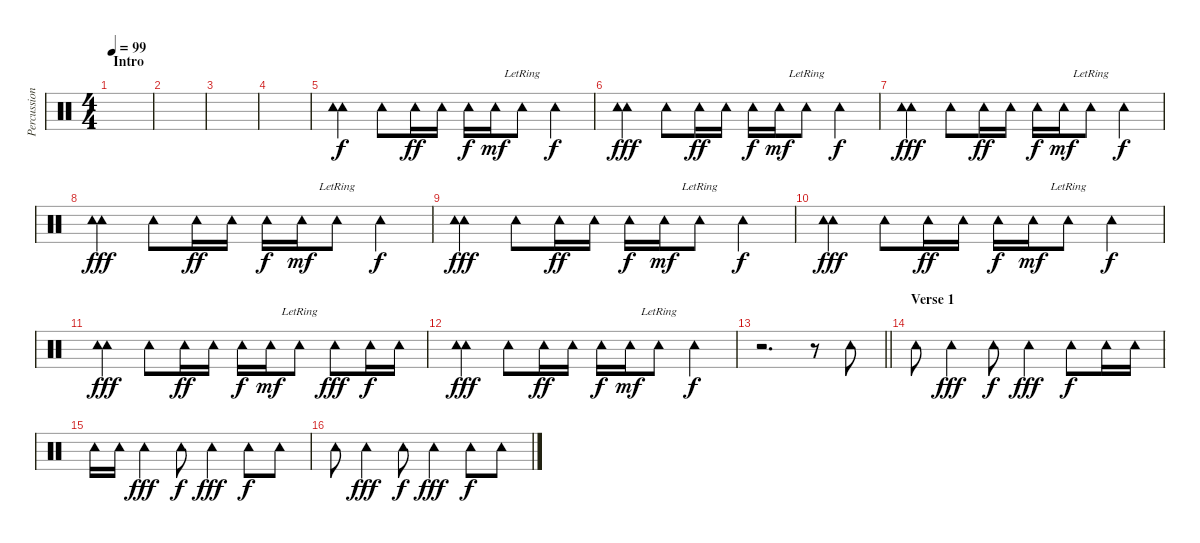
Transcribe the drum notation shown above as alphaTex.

\track ("Percussion" "Percussion") {instrument percussion}
\staff {score}
\articulation defaults
\ts (4 4)
\section ("" "Intro")
\tempo 99
\clef neutral
\ks c
|
|
|
|
("Tambourine (hit)" "Tambourine (hit)").4{bd 60} "Tambourine (hit)".8 "Tambourine (hit)".16{dy ff} "Tambourine (hit)".16 "Tambourine (hit)".16{dy f} "Tambourine (hit)".16{dy mf} "Tambourine (hit)"{lr}.8 "Tambourine (hit)".4{dy f} |
("Tambourine (hit)" "Tambourine (hit)").4{bd 60 dy fff} "Tambourine (hit)".8 "Tambourine (hit)".16{dy ff} "Tambourine (hit)".16 "Tambourine (hit)".16{dy f} "Tambourine (hit)".16{dy mf} "Tambourine (hit)"{lr}.8 "Tambourine (hit)".4{dy f} |
("Tambourine (hit)" "Tambourine (hit)").4{bd 60 dy fff} "Tambourine (hit)".8 "Tambourine (hit)".16{dy ff} "Tambourine (hit)".16 "Tambourine (hit)".16{dy f} "Tambourine (hit)".16{dy mf} "Tambourine (hit)"{lr}.8 "Tambourine (hit)".4{dy f} |
("Tambourine (hit)" "Tambourine (hit)").4{bd 60 dy fff} "Tambourine (hit)".8 "Tambourine (hit)".16{dy ff} "Tambourine (hit)".16 "Tambourine (hit)".16{dy f} "Tambourine (hit)".16{dy mf} "Tambourine (hit)"{lr}.8 "Tambourine (hit)".4{dy f} |
("Tambourine (hit)" "Tambourine (hit)").4{bd 60 dy fff} "Tambourine (hit)".8 "Tambourine (hit)".16{dy ff} "Tambourine (hit)".16 "Tambourine (hit)".16{dy f} "Tambourine (hit)".16{dy mf} "Tambourine (hit)"{lr}.8 "Tambourine (hit)".4{dy f} |
("Tambourine (hit)" "Tambourine (hit)").4{bd 60 dy fff} "Tambourine (hit)".8 "Tambourine (hit)".16{dy ff} "Tambourine (hit)".16 "Tambourine (hit)".16{dy f} "Tambourine (hit)".16{dy mf} "Tambourine (hit)"{lr}.8 "Tambourine (hit)".4{dy f} |
("Tambourine (hit)" "Tambourine (hit)").4{bd 60 dy fff} "Tambourine (hit)".8 "Tambourine (hit)".16{dy ff} "Tambourine (hit)".16 "Tambourine (hit)".16{dy f} "Tambourine (hit)".16{dy mf} "Tambourine (hit)"{lr}.8 "Tambourine (hit)".8{dy fff} "Tambourine (hit)".16{dy f} "Tambourine (hit)".16 |
("Tambourine (hit)" "Tambourine (hit)").4{bd 60 dy fff} "Tambourine (hit)".8 "Tambourine (hit)".16{dy ff} "Tambourine (hit)".16 "Tambourine (hit)".16{dy f} "Tambourine (hit)".16{dy mf} "Tambourine (hit)"{lr}.8 "Tambourine (hit)".4{dy f} |
\barLineRight lightlight
r.2{d volume 4} r.8 "Tambourine (hit)".8 |
\section ("" "Verse 1")
"Tambourine (hit)".8 "Tambourine (hit)".4{dy fff} "Tambourine (hit)".8{dy f} "Tambourine (hit)".4{dy fff} "Tambourine (hit)".8{dy f} "Tambourine (hit)".16 "Tambourine (hit)".16 |
"Tambourine (hit)".16 "Tambourine (hit)".16 "Tambourine (hit)".4{dy fff} "Tambourine (hit)".8{dy f} "Tambourine (hit)".4{dy fff} "Tambourine (hit)".8{dy f} "Tambourine (hit)".8 |
"Tambourine (hit)".8 "Tambourine (hit)".4{dy fff} "Tambourine (hit)".8{dy f} "Tambourine (hit)".4{dy fff} "Tambourine (hit)".8{dy f} "Tambourine (hit)".8
